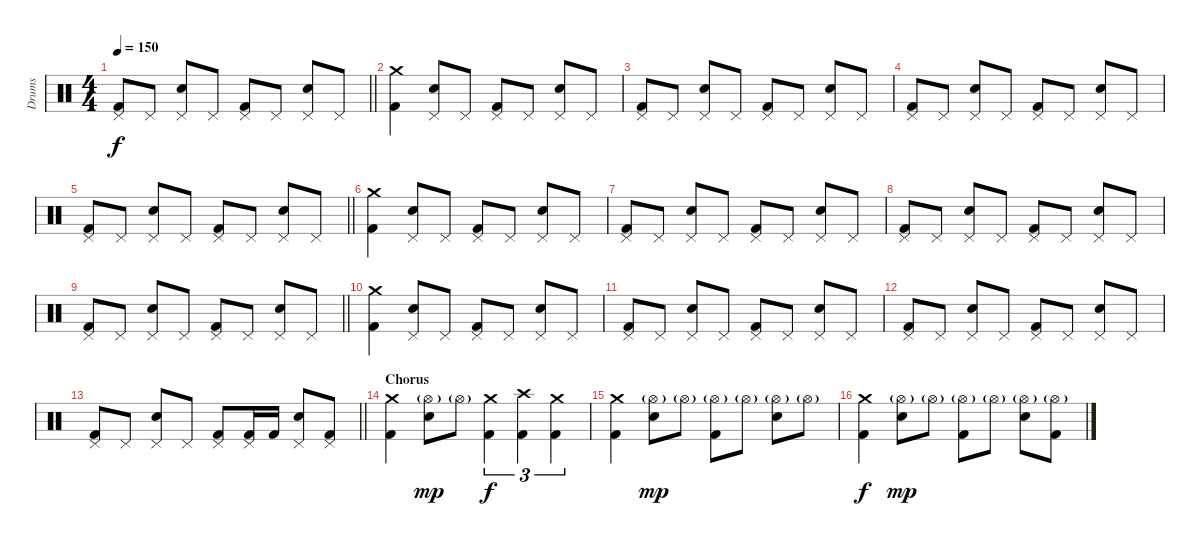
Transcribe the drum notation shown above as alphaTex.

\track ("Drums" "Drums") {instrument percussion}
\staff {score}
\articulation defaults
\ts (4 4)
\tempo 150
\clef neutral
\barLineRight lightlight
\ks c
("Kick (hit) 2" "Pedal Hi-Hat (hit)").8{dy f} "Pedal Hi-Hat (hit)".8 ("Snare (hit) 2" "Pedal Hi-Hat (hit)").8 "Pedal Hi-Hat (hit)".8 ("Kick (hit) 2" "Pedal Hi-Hat (hit)").8 "Pedal Hi-Hat (hit)".8 ("Snare (hit) 2" "Pedal Hi-Hat (hit)").8 "Pedal Hi-Hat (hit)".8 |
\section ("" "")
("Kick (hit) 2" "Crash medium (hit)").4 ("Snare (hit) 2" "Pedal Hi-Hat (hit)").8 "Pedal Hi-Hat (hit)".8 ("Kick (hit) 2" "Pedal Hi-Hat (hit)").8 "Pedal Hi-Hat (hit)".8 ("Snare (hit) 2" "Pedal Hi-Hat (hit)").8 "Pedal Hi-Hat (hit)".8 |
("Kick (hit) 2" "Pedal Hi-Hat (hit)").8 "Pedal Hi-Hat (hit)".8 ("Snare (hit) 2" "Pedal Hi-Hat (hit)").8 "Pedal Hi-Hat (hit)".8 ("Kick (hit) 2" "Pedal Hi-Hat (hit)").8 "Pedal Hi-Hat (hit)".8 ("Snare (hit) 2" "Pedal Hi-Hat (hit)").8 "Pedal Hi-Hat (hit)".8 |
("Kick (hit) 2" "Pedal Hi-Hat (hit)").8 "Pedal Hi-Hat (hit)".8 ("Snare (hit) 2" "Pedal Hi-Hat (hit)").8 "Pedal Hi-Hat (hit)".8 ("Kick (hit) 2" "Pedal Hi-Hat (hit)").8 "Pedal Hi-Hat (hit)".8 ("Snare (hit) 2" "Pedal Hi-Hat (hit)").8 "Pedal Hi-Hat (hit)".8 |
\barLineRight lightlight
("Kick (hit) 2" "Pedal Hi-Hat (hit)").8 "Pedal Hi-Hat (hit)".8 ("Snare (hit) 2" "Pedal Hi-Hat (hit)").8 "Pedal Hi-Hat (hit)".8 ("Kick (hit) 2" "Pedal Hi-Hat (hit)").8 "Pedal Hi-Hat (hit)".8 ("Snare (hit) 2" "Pedal Hi-Hat (hit)").8 "Pedal Hi-Hat (hit)".8 |
\section ("" "")
("Kick (hit) 2" "Crash medium (hit)").4 ("Snare (hit) 2" "Pedal Hi-Hat (hit)").8 "Pedal Hi-Hat (hit)".8 ("Kick (hit) 2" "Pedal Hi-Hat (hit)").8 "Pedal Hi-Hat (hit)".8 ("Snare (hit) 2" "Pedal Hi-Hat (hit)").8 "Pedal Hi-Hat (hit)".8 |
("Kick (hit) 2" "Pedal Hi-Hat (hit)").8 "Pedal Hi-Hat (hit)".8 ("Snare (hit) 2" "Pedal Hi-Hat (hit)").8 "Pedal Hi-Hat (hit)".8 ("Kick (hit) 2" "Pedal Hi-Hat (hit)").8 "Pedal Hi-Hat (hit)".8 ("Snare (hit) 2" "Pedal Hi-Hat (hit)").8 "Pedal Hi-Hat (hit)".8 |
("Kick (hit) 2" "Pedal Hi-Hat (hit)").8 "Pedal Hi-Hat (hit)".8 ("Snare (hit) 2" "Pedal Hi-Hat (hit)").8 "Pedal Hi-Hat (hit)".8 ("Kick (hit) 2" "Pedal Hi-Hat (hit)").8 "Pedal Hi-Hat (hit)".8 ("Snare (hit) 2" "Pedal Hi-Hat (hit)").8 "Pedal Hi-Hat (hit)".8 |
\barLineRight lightlight
("Kick (hit) 2" "Pedal Hi-Hat (hit)").8 "Pedal Hi-Hat (hit)".8 ("Snare (hit) 2" "Pedal Hi-Hat (hit)").8 "Pedal Hi-Hat (hit)".8 ("Kick (hit) 2" "Pedal Hi-Hat (hit)").8 "Pedal Hi-Hat (hit)".8 ("Snare (hit) 2" "Pedal Hi-Hat (hit)").8 "Pedal Hi-Hat (hit)".8 |
\section ("" "")
("Kick (hit) 2" "Crash medium (hit)").4 ("Snare (hit) 2" "Pedal Hi-Hat (hit)").8 "Pedal Hi-Hat (hit)".8 ("Kick (hit) 2" "Pedal Hi-Hat (hit)").8 "Pedal Hi-Hat (hit)".8 ("Snare (hit) 2" "Pedal Hi-Hat (hit)").8 "Pedal Hi-Hat (hit)".8 |
("Kick (hit) 2" "Pedal Hi-Hat (hit)").8 "Pedal Hi-Hat (hit)".8 ("Snare (hit) 2" "Pedal Hi-Hat (hit)").8 "Pedal Hi-Hat (hit)".8 ("Kick (hit) 2" "Pedal Hi-Hat (hit)").8 "Pedal Hi-Hat (hit)".8 ("Snare (hit) 2" "Pedal Hi-Hat (hit)").8 "Pedal Hi-Hat (hit)".8 |
("Kick (hit) 2" "Pedal Hi-Hat (hit)").8 "Pedal Hi-Hat (hit)".8 ("Snare (hit) 2" "Pedal Hi-Hat (hit)").8 "Pedal Hi-Hat (hit)".8 ("Kick (hit) 2" "Pedal Hi-Hat (hit)").8 "Pedal Hi-Hat (hit)".8 ("Snare (hit) 2" "Pedal Hi-Hat (hit)").8 "Pedal Hi-Hat (hit)".8 |
\barLineRight lightlight
("Kick (hit) 2" "Pedal Hi-Hat (hit)").8 "Pedal Hi-Hat (hit)".8 ("Snare (hit) 2" "Pedal Hi-Hat (hit)").8 "Pedal Hi-Hat (hit)".8 ("Kick (hit) 2" "Pedal Hi-Hat (hit)").8 ("Kick (hit) 2" "Pedal Hi-Hat (hit)").16 "Kick (hit) 2".16 ("Snare (hit) 2" "Pedal Hi-Hat (hit)").8 ("Kick (hit) 2" "Pedal Hi-Hat (hit)").8 |
\section ("" "Chorus")
("Kick (hit) 2" "Crash medium (hit)").4 ("Snare (hit) 2" "Hi-Hat (open)"{g}).8{dy mp} "Hi-Hat (open)"{g}.8 ("Kick (hit) 2" "Crash medium (hit)").4{tu (3 2) dy f} ("Kick (hit) 2" "Crash high (hit)").4{tu (3 2)} ("Kick (hit) 2" "Crash medium (hit)").4{tu (3 2)} |
("Kick (hit) 2" "Crash medium (hit)").4 ("Snare (hit) 2" "Hi-Hat (open)"{g}).8{dy mp} "Hi-Hat (open)"{g}.8 ("Kick (hit) 2" "Hi-Hat (open)"{g}).8 "Hi-Hat (open)"{g}.8 ("Snare (hit) 2" "Hi-Hat (open)"{g}).8 "Hi-Hat (open)"{g}.8 |
("Kick (hit) 2" "Crash medium (hit)").4{dy f} ("Snare (hit) 2" "Hi-Hat (open)"{g}).8{dy mp} "Hi-Hat (open)"{g}.8 ("Kick (hit) 2" "Hi-Hat (open)"{g}).8 "Hi-Hat (open)"{g}.8 ("Snare (hit) 2" "Hi-Hat (open)"{g}).8 ("Kick (hit) 2" "Hi-Hat (open)"{g}).8
